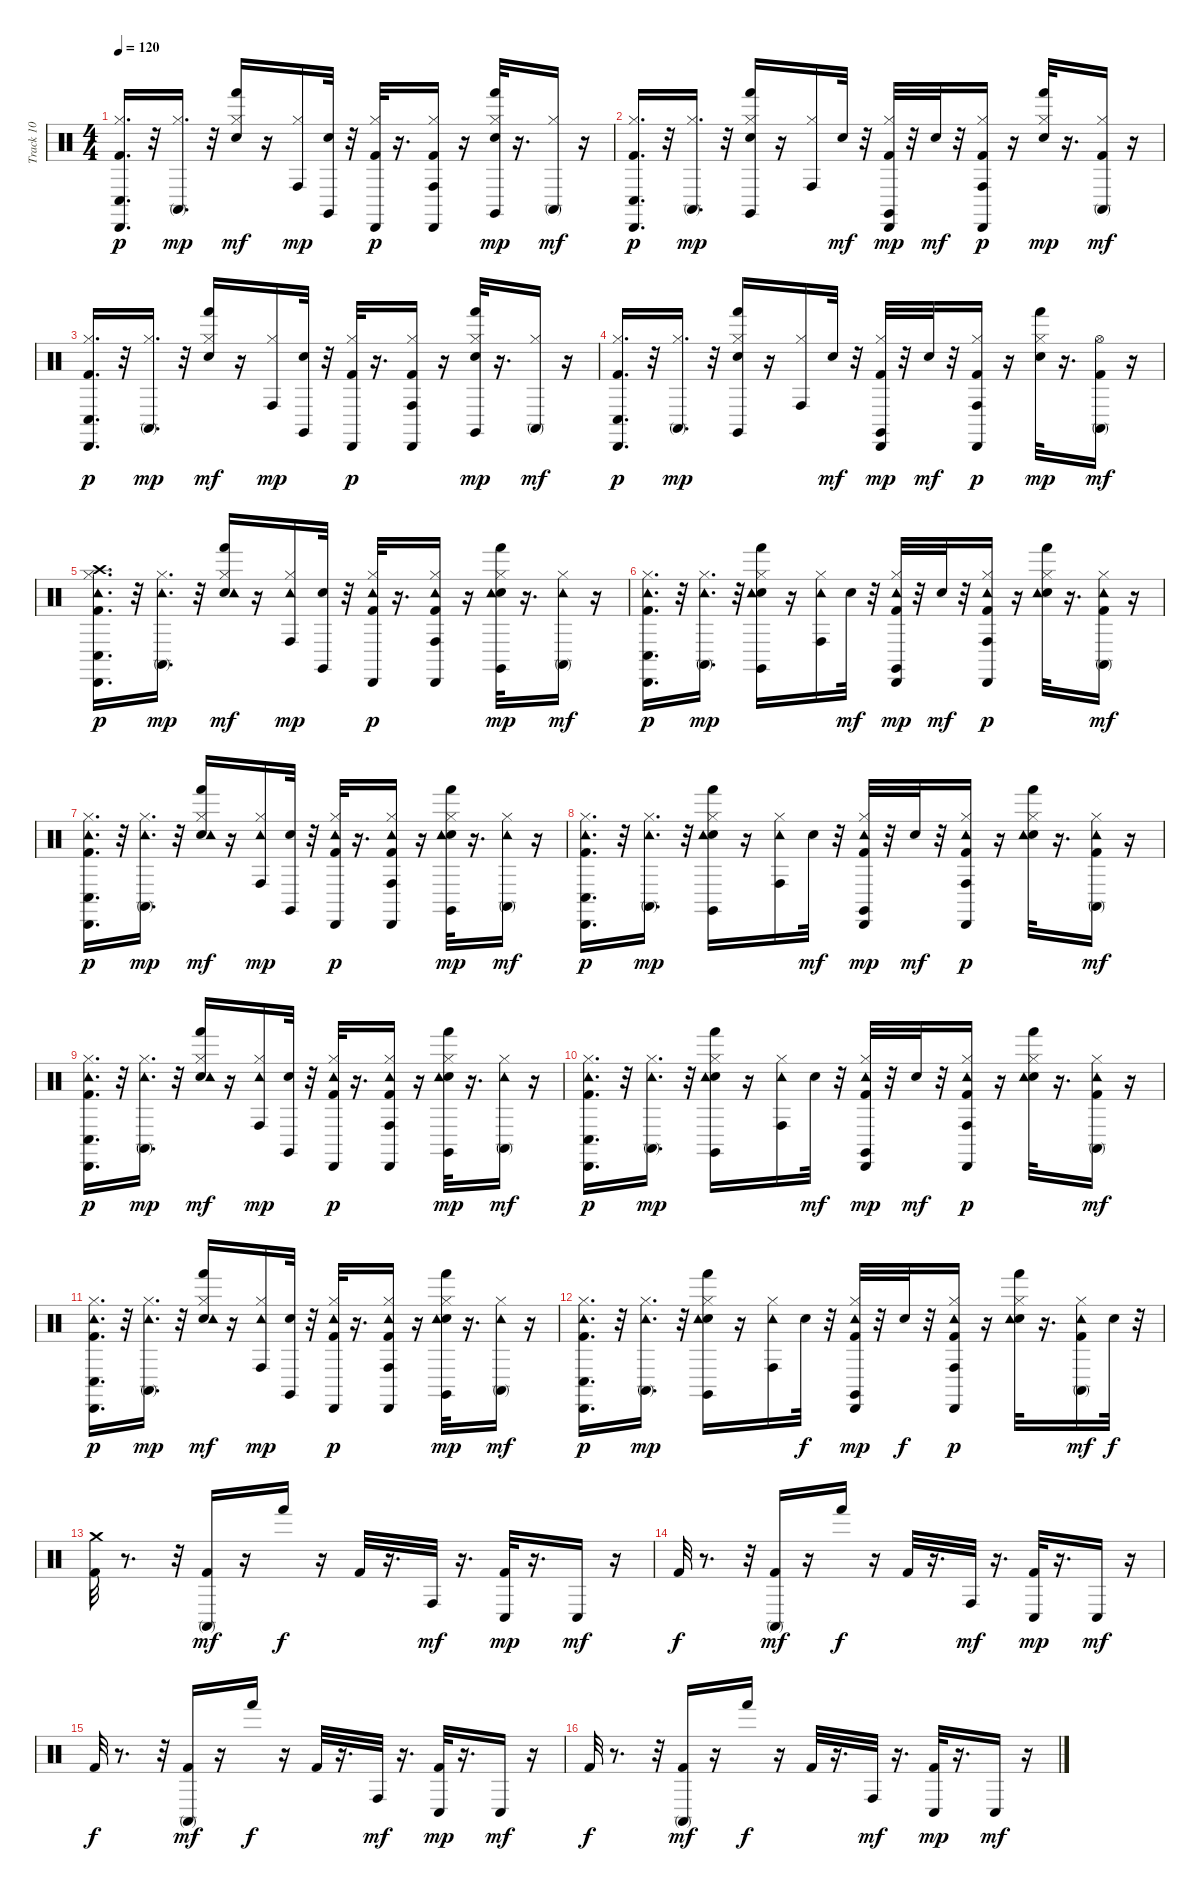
\track ("Track 10" "Track 10") {instrument percussion}
\staff {score}
\articulation defaults
\ts (4 4)
\tempo 120
\clef neutral
\ks c
("Kick (hit) 2" "Hi-Hat (closed)" "Conga low (hit)" "Cabasa (hit)").16{d dy p} r.32 ("Hi-Hat (closed)" "Conga high (mute)").16{d dy mp} r.32 ("Electric Snare (hit)" "Hi-Hat (closed)" "Hand (hit)").16{dy mf} r.16 ("Hi-Hat (closed)" "Conga high (hit)").16{dy mp} ("Electric Snare (hit)" "Claves (hit)").32 r.32 ("Kick (hit) 2" "Hi-Hat (closed)" "Cabasa (hit)").32{dy p} r.16{d} ("Kick (hit) 2" "Hi-Hat (closed)" "Conga high (hit)" "Cabasa (hit)").16 r.16 ("Electric Snare (hit)" "Hi-Hat (closed)" "Hand (hit)" "Claves (hit)").32{dy mp} r.16{d} ("Hi-Hat (closed)" "Conga high (mute)").16{dy mf} r.16 |
("Kick (hit) 2" "Hi-Hat (closed)" "Conga low (hit)" "Cabasa (hit)").16{d dy p} r.32 ("Hi-Hat (closed)" "Conga high (mute)").16{d dy mp} r.32 ("Electric Snare (hit)" "Hi-Hat (closed)" "Hand (hit)" "Claves (hit)").16 r.16 ("Hi-Hat (closed)" "Conga high (hit)").16 "Electric Snare (hit)".32{dy mf} r.32 ("Kick (hit) 2" "Hi-Hat (closed)" "Cabasa (hit)" "Claves (hit)").32{dy mp} r.32 "Electric Snare (hit)".32{dy mf} r.32 ("Kick (hit) 2" "Hi-Hat (closed)" "Conga high (hit)" "Cabasa (hit)").16{dy p} r.16 ("Electric Snare (hit)" "Hi-Hat (closed)" "Hand (hit)").32{dy mp} r.16{d} ("Kick (hit) 2" "Hi-Hat (closed)" "Conga high (mute)").16{dy mf} r.16 |
("Kick (hit) 2" "Hi-Hat (closed)" "Conga low (hit)" "Cabasa (hit)").16{d dy p} r.32 ("Hi-Hat (closed)" "Conga high (mute)").16{d dy mp} r.32 ("Electric Snare (hit)" "Hi-Hat (closed)" "Hand (hit)").16{dy mf} r.16 ("Hi-Hat (closed)" "Conga high (hit)").16{dy mp} ("Electric Snare (hit)" "Claves (hit)").32 r.32 ("Kick (hit) 2" "Hi-Hat (closed)" "Cabasa (hit)").32{dy p} r.16{d} ("Kick (hit) 2" "Hi-Hat (closed)" "Conga high (hit)" "Cabasa (hit)").16 r.16 ("Electric Snare (hit)" "Hi-Hat (closed)" "Hand (hit)" "Claves (hit)").32{dy mp} r.16{d} ("Hi-Hat (closed)" "Conga high (mute)").16{dy mf} r.16 |
("Kick (hit) 2" "Hi-Hat (closed)" "Conga low (hit)" "Cabasa (hit)").16{d dy p} r.32 ("Hi-Hat (closed)" "Conga high (mute)").16{d dy mp} r.32 ("Electric Snare (hit)" "Hi-Hat (closed)" "Hand (hit)" "Claves (hit)").16 r.16 ("Hi-Hat (closed)" "Conga high (hit)").16 "Electric Snare (hit)".32{dy mf} r.32 ("Kick (hit) 2" "Hi-Hat (closed)" "Cabasa (hit)" "Claves (hit)").32{dy mp} r.32 "Electric Snare (hit)".32{dy mf} r.32 ("Kick (hit) 2" "Hi-Hat (closed)" "Conga high (hit)" "Cabasa (hit)").16{dy p} r.16 ("Electric Snare (hit)" "Hi-Hat (closed)" "Hand (hit)").32{dy mp} r.16{d} ("Kick (hit) 2" "Hi-Hat (open)" "Conga high (mute)").16{dy mf} r.16 |
("Kick (hit) 2" "Hi-Hat (closed)" "Crash high (hit)" "Tambourine (hit)" "Conga low (hit)" "Cabasa (hit)").16{d dy p} r.32 ("Hi-Hat (closed)" "Tambourine (hit)" "Conga high (mute)").16{d dy mp} r.32 ("Electric Snare (hit)" "Hi-Hat (closed)" "Tambourine (hit)" "Hand (hit)").16{dy mf} r.16 ("Hi-Hat (closed)" "Tambourine (hit)" "Conga high (hit)").16{dy mp} ("Electric Snare (hit)" "Claves (hit)").32 r.32 ("Kick (hit) 2" "Hi-Hat (closed)" "Tambourine (hit)" "Cabasa (hit)").32{dy p} r.16{d} ("Kick (hit) 2" "Hi-Hat (closed)" "Tambourine (hit)" "Conga high (hit)" "Cabasa (hit)").16 r.16 ("Electric Snare (hit)" "Hi-Hat (closed)" "Tambourine (hit)" "Hand (hit)" "Claves (hit)").32{dy mp} r.16{d} ("Hi-Hat (closed)" "Tambourine (hit)" "Conga high (mute)").16{dy mf} r.16 |
("Kick (hit) 2" "Hi-Hat (closed)" "Tambourine (hit)" "Conga low (hit)" "Cabasa (hit)").16{d dy p} r.32 ("Hi-Hat (closed)" "Tambourine (hit)" "Conga high (mute)").16{d dy mp} r.32 ("Electric Snare (hit)" "Hi-Hat (closed)" "Tambourine (hit)" "Hand (hit)" "Claves (hit)").16 r.16 ("Hi-Hat (closed)" "Tambourine (hit)" "Conga high (hit)").16 "Electric Snare (hit)".32{dy mf} r.32 ("Kick (hit) 2" "Hi-Hat (closed)" "Tambourine (hit)" "Cabasa (hit)" "Claves (hit)").32{dy mp} r.32 "Electric Snare (hit)".32{dy mf} r.32 ("Kick (hit) 2" "Hi-Hat (closed)" "Tambourine (hit)" "Conga high (hit)" "Cabasa (hit)").16{dy p} r.16 ("Electric Snare (hit)" "Hi-Hat (closed)" "Tambourine (hit)" "Hand (hit)").32 r.16{d} ("Kick (hit) 2" "Hi-Hat (closed)" "Tambourine (hit)" "Conga high (mute)").16{dy mf} r.16 |
("Kick (hit) 2" "Hi-Hat (closed)" "Tambourine (hit)" "Conga low (hit)" "Cabasa (hit)").16{d dy p} r.32 ("Hi-Hat (closed)" "Tambourine (hit)" "Conga high (mute)").16{d dy mp} r.32 ("Electric Snare (hit)" "Hi-Hat (closed)" "Tambourine (hit)" "Hand (hit)").16{dy mf} r.16 ("Hi-Hat (closed)" "Tambourine (hit)" "Conga high (hit)").16{dy mp} ("Electric Snare (hit)" "Claves (hit)").32 r.32 ("Kick (hit) 2" "Hi-Hat (closed)" "Tambourine (hit)" "Cabasa (hit)").32{dy p} r.16{d} ("Kick (hit) 2" "Hi-Hat (closed)" "Tambourine (hit)" "Conga high (hit)" "Cabasa (hit)").16 r.16 ("Electric Snare (hit)" "Hi-Hat (closed)" "Tambourine (hit)" "Hand (hit)" "Claves (hit)").32{dy mp} r.16{d} ("Hi-Hat (closed)" "Tambourine (hit)" "Conga high (mute)").16{dy mf} r.16 |
("Kick (hit) 2" "Hi-Hat (closed)" "Tambourine (hit)" "Conga low (hit)" "Cabasa (hit)").16{d dy p} r.32 ("Hi-Hat (closed)" "Tambourine (hit)" "Conga high (mute)").16{d dy mp} r.32 ("Electric Snare (hit)" "Hi-Hat (closed)" "Tambourine (hit)" "Hand (hit)" "Claves (hit)").16 r.16 ("Hi-Hat (closed)" "Tambourine (hit)" "Conga high (hit)").16 "Electric Snare (hit)".32{dy mf} r.32 ("Kick (hit) 2" "Hi-Hat (closed)" "Tambourine (hit)" "Cabasa (hit)" "Claves (hit)").32{dy mp} r.32 "Electric Snare (hit)".32{dy mf} r.32 ("Kick (hit) 2" "Hi-Hat (closed)" "Tambourine (hit)" "Conga high (hit)" "Cabasa (hit)").16{dy p} r.16 ("Electric Snare (hit)" "Hi-Hat (closed)" "Tambourine (hit)" "Hand (hit)").32 r.16{d} ("Kick (hit) 2" "Hi-Hat (closed)" "Tambourine (hit)" "Conga high (mute)").16{dy mf} r.16 |
("Kick (hit) 2" "Hi-Hat (closed)" "Tambourine (hit)" "Conga low (hit)" "Cabasa (hit)").16{d dy p} r.32 ("Hi-Hat (closed)" "Tambourine (hit)" "Conga high (mute)").16{d dy mp} r.32 ("Electric Snare (hit)" "Hi-Hat (closed)" "Tambourine (hit)" "Hand (hit)").16{dy mf} r.16 ("Hi-Hat (closed)" "Tambourine (hit)" "Conga high (hit)").16{dy mp} ("Electric Snare (hit)" "Claves (hit)").32 r.32 ("Kick (hit) 2" "Hi-Hat (closed)" "Tambourine (hit)" "Cabasa (hit)").32{dy p} r.16{d} ("Kick (hit) 2" "Hi-Hat (closed)" "Tambourine (hit)" "Conga high (hit)" "Cabasa (hit)").16 r.16 ("Electric Snare (hit)" "Hi-Hat (closed)" "Tambourine (hit)" "Hand (hit)" "Claves (hit)").32{dy mp} r.16{d} ("Hi-Hat (closed)" "Tambourine (hit)" "Conga high (mute)").16{dy mf} r.16 |
("Kick (hit) 2" "Hi-Hat (closed)" "Tambourine (hit)" "Conga low (hit)" "Cabasa (hit)").16{d dy p} r.32 ("Hi-Hat (closed)" "Tambourine (hit)" "Conga high (mute)").16{d dy mp} r.32 ("Electric Snare (hit)" "Hi-Hat (closed)" "Tambourine (hit)" "Hand (hit)" "Claves (hit)").16 r.16 ("Hi-Hat (closed)" "Tambourine (hit)" "Conga high (hit)").16 "Electric Snare (hit)".32{dy mf} r.32 ("Kick (hit) 2" "Hi-Hat (closed)" "Tambourine (hit)" "Cabasa (hit)" "Claves (hit)").32{dy mp} r.32 "Electric Snare (hit)".32{dy mf} r.32 ("Kick (hit) 2" "Hi-Hat (closed)" "Tambourine (hit)" "Conga high (hit)" "Cabasa (hit)").16{dy p} r.16 ("Electric Snare (hit)" "Hi-Hat (closed)" "Tambourine (hit)" "Hand (hit)").32 r.16{d} ("Kick (hit) 2" "Hi-Hat (closed)" "Tambourine (hit)" "Conga high (mute)").16{dy mf} r.16 |
("Kick (hit) 2" "Hi-Hat (closed)" "Tambourine (hit)" "Conga low (hit)" "Cabasa (hit)").16{d dy p} r.32 ("Hi-Hat (closed)" "Tambourine (hit)" "Conga high (mute)").16{d dy mp} r.32 ("Electric Snare (hit)" "Hi-Hat (closed)" "Tambourine (hit)" "Hand (hit)").16{dy mf} r.16 ("Hi-Hat (closed)" "Tambourine (hit)" "Conga high (hit)").16{dy mp} ("Electric Snare (hit)" "Claves (hit)").32 r.32 ("Kick (hit) 2" "Hi-Hat (closed)" "Tambourine (hit)" "Cabasa (hit)").32{dy p} r.16{d} ("Kick (hit) 2" "Hi-Hat (closed)" "Tambourine (hit)" "Conga high (hit)" "Cabasa (hit)").16 r.16 ("Electric Snare (hit)" "Hi-Hat (closed)" "Tambourine (hit)" "Hand (hit)" "Claves (hit)").32{dy mp} r.16{d} ("Hi-Hat (closed)" "Tambourine (hit)" "Conga high (mute)").16{dy mf} r.16 |
("Kick (hit) 2" "Hi-Hat (closed)" "Tambourine (hit)" "Conga low (hit)" "Cabasa (hit)").16{d dy p} r.32 ("Hi-Hat (closed)" "Tambourine (hit)" "Conga high (mute)").16{d dy mp} r.32 ("Electric Snare (hit)" "Hi-Hat (closed)" "Tambourine (hit)" "Hand (hit)" "Claves (hit)").16 r.16 ("Hi-Hat (closed)" "Tambourine (hit)" "Conga high (hit)").16 "Electric Snare (hit)".32{dy f} r.32 ("Kick (hit) 2" "Hi-Hat (closed)" "Tambourine (hit)" "Cabasa (hit)" "Claves (hit)").32{dy mp} r.32 "Electric Snare (hit)".32{dy f} r.32 ("Kick (hit) 2" "Hi-Hat (closed)" "Tambourine (hit)" "Conga high (hit)" "Cabasa (hit)").16{dy p} r.16 ("Electric Snare (hit)" "Hi-Hat (closed)" "Tambourine (hit)" "Hand (hit)").32 r.16{d} ("Kick (hit) 2" "Hi-Hat (closed)" "Tambourine (hit)" "Conga high (mute)").16{dy mf} "Electric Snare (hit)".32{dy f} r.32 |
("Kick (hit) 2" "Crash medium (hit)").32 r.8{d} r.32 ("Kick (hit) 2" "Conga high (mute)").16{dy mf} r.16 "Hand (hit)".16{dy f} r.16 "Kick (hit) 2".32 r.16{d} "Conga high (hit)".32{dy mf} r.16{d} ("Kick (hit) 2" "Conga low (hit)").32{dy mp} r.16{d} "Conga low (hit)".16{dy mf} r.16 |
"Kick (hit) 2".32{dy f} r.8{d} r.32 ("Kick (hit) 2" "Conga high (mute)").16{dy mf} r.16 "Hand (hit)".16{dy f} r.16 "Kick (hit) 2".32 r.16{d} "Conga high (hit)".32{dy mf} r.16{d} ("Kick (hit) 2" "Conga low (hit)").32{dy mp} r.16{d} "Conga low (hit)".16{dy mf} r.16 |
"Kick (hit) 2".32{dy f} r.8{d} r.32 ("Kick (hit) 2" "Conga high (mute)").16{dy mf} r.16 "Hand (hit)".16{dy f} r.16 "Kick (hit) 2".32 r.16{d} "Conga high (hit)".32{dy mf} r.16{d} ("Kick (hit) 2" "Conga low (hit)").32{dy mp} r.16{d} "Conga low (hit)".16{dy mf} r.16 |
"Kick (hit) 2".32{dy f} r.8{d} r.32 ("Kick (hit) 2" "Conga high (mute)").16{dy mf} r.16 "Hand (hit)".16{dy f} r.16 "Kick (hit) 2".32 r.16{d} "Conga high (hit)".32{dy mf} r.16{d} ("Kick (hit) 2" "Conga low (hit)").32{dy mp} r.16{d} "Conga low (hit)".16{dy mf} r.16
